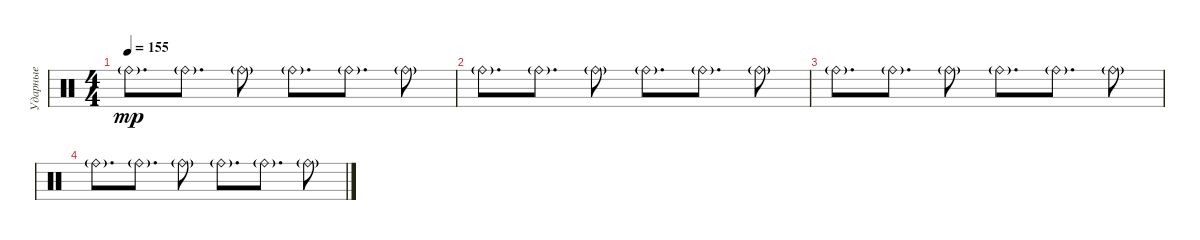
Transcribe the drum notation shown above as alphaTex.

\track ("Ударные" "Ударные") {instrument percussion}
\staff {score}
\articulation defaults
\ts (4 4)
\tempo 155
\clef neutral
\ks c "Ride (bell)"{g}.8{d dy mp} "Ride (bell)"{g}.8{d} "Ride (bell)"{g}.8 "Ride (bell)"{g}.8{d} "Ride (bell)"{g}.8{d} "Ride (bell)"{g}.8
|
"Ride (bell)"{g}.8{d} "Ride (bell)"{g}.8{d} "Ride (bell)"{g}.8 "Ride (bell)"{g}.8{d} "Ride (bell)"{g}.8{d} "Ride (bell)"{g}.8 |
"Ride (bell)"{g}.8{d} "Ride (bell)"{g}.8{d} "Ride (bell)"{g}.8 "Ride (bell)"{g}.8{d} "Ride (bell)"{g}.8{d} "Ride (bell)"{g}.8 |
"Ride (bell)"{g}.8{d} "Ride (bell)"{g}.8{d} "Ride (bell)"{g}.8 "Ride (bell)"{g}.8{d} "Ride (bell)"{g}.8{d} "Ride (bell)"{g}.8
